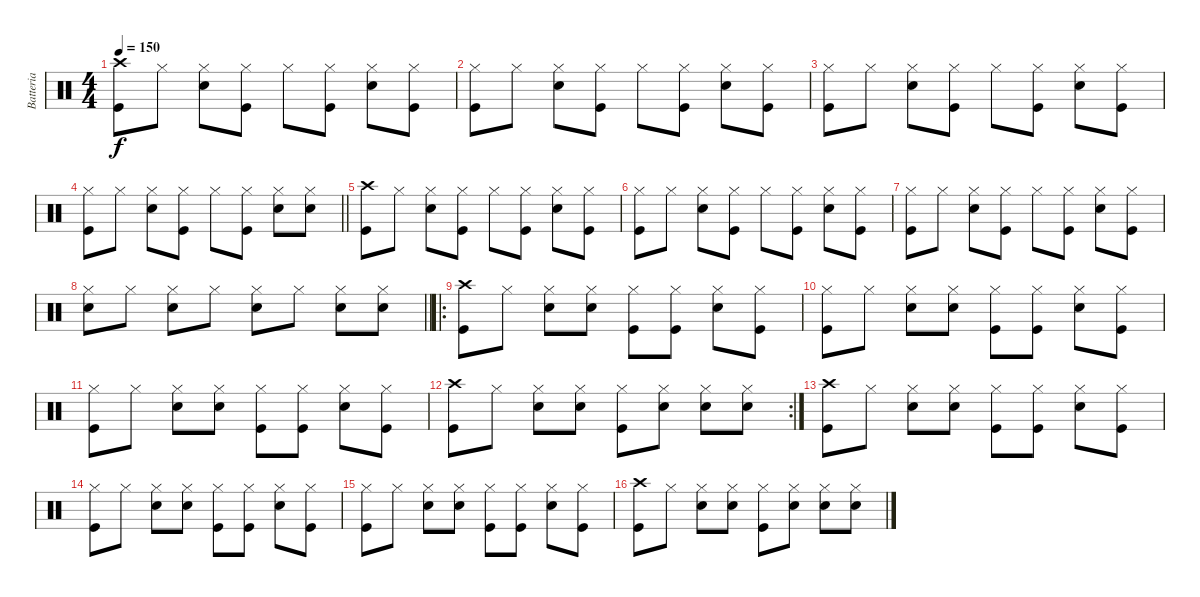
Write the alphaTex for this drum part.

\track ("Batteria" "Batteria") {instrument percussion}
\staff {score}
\articulation defaults
\ts (4 4)
\tempo 150
\clef neutral
\ks c
("Kick (hit)" "Crash high (hit)").8{dy f} "Hi-Hat (closed)".8 ("Snare (hit) 2" "Hi-Hat (closed)").8 ("Kick (hit)" "Hi-Hat (closed)").8 "Hi-Hat (closed)".8 ("Kick (hit)" "Hi-Hat (closed)").8 ("Snare (hit) 2" "Hi-Hat (closed)").8 ("Kick (hit)" "Hi-Hat (closed)").8 |
("Kick (hit)" "Hi-Hat (closed)").8 "Hi-Hat (closed)".8 ("Snare (hit) 2" "Hi-Hat (closed)").8 ("Kick (hit)" "Hi-Hat (closed)").8 "Hi-Hat (closed)".8 ("Kick (hit)" "Hi-Hat (closed)").8 ("Snare (hit) 2" "Hi-Hat (closed)").8 ("Kick (hit)" "Hi-Hat (closed)").8 |
("Kick (hit)" "Hi-Hat (closed)").8 "Hi-Hat (closed)".8 ("Snare (hit) 2" "Hi-Hat (closed)").8 ("Kick (hit)" "Hi-Hat (closed)").8 "Hi-Hat (closed)".8 ("Kick (hit)" "Hi-Hat (closed)").8 ("Snare (hit) 2" "Hi-Hat (closed)").8 ("Kick (hit)" "Hi-Hat (closed)").8 |
\barLineRight lightlight
("Kick (hit)" "Hi-Hat (closed)").8 "Hi-Hat (closed)".8 ("Snare (hit) 2" "Hi-Hat (closed)").8 ("Kick (hit)" "Hi-Hat (closed)").8 "Hi-Hat (closed)".8 ("Kick (hit)" "Hi-Hat (closed)").8 ("Snare (hit) 2" "Hi-Hat (closed)").8 ("Hi-Hat (closed)" "Snare (hit) 2").8 |
("Kick (hit)" "Crash high (hit)").8 "Hi-Hat (closed)".8 ("Snare (hit) 2" "Hi-Hat (closed)").8 ("Kick (hit)" "Hi-Hat (closed)").8 "Hi-Hat (closed)".8 ("Kick (hit)" "Hi-Hat (closed)").8 ("Snare (hit) 2" "Hi-Hat (closed)").8 ("Kick (hit)" "Hi-Hat (closed)").8 |
("Kick (hit)" "Hi-Hat (closed)").8 "Hi-Hat (closed)".8 ("Snare (hit) 2" "Hi-Hat (closed)").8 ("Kick (hit)" "Hi-Hat (closed)").8 "Hi-Hat (closed)".8 ("Kick (hit)" "Hi-Hat (closed)").8 ("Snare (hit) 2" "Hi-Hat (closed)").8 ("Kick (hit)" "Hi-Hat (closed)").8 |
("Kick (hit)" "Hi-Hat (closed)").8 "Hi-Hat (closed)".8 ("Snare (hit) 2" "Hi-Hat (closed)").8 ("Kick (hit)" "Hi-Hat (closed)").8 "Hi-Hat (closed)".8 ("Kick (hit)" "Hi-Hat (closed)").8 ("Snare (hit) 2" "Hi-Hat (closed)").8 ("Kick (hit)" "Hi-Hat (closed)").8 |
\barLineRight lightlight
("Hi-Hat (closed)" "Snare (hit) 2").8 "Hi-Hat (closed)".8 ("Hi-Hat (closed)" "Snare (hit) 2").8 "Hi-Hat (closed)".8 ("Hi-Hat (closed)" "Snare (hit) 2").8 "Hi-Hat (closed)".8 ("Hi-Hat (closed)" "Snare (hit) 2").8 ("Hi-Hat (closed)" "Snare (hit) 2").8 |
\ro
("Kick (hit)" "Crash high (hit)").8 "Hi-Hat (closed)".8 ("Snare (hit) 2" "Hi-Hat (closed)").8 ("Snare (hit) 2" "Hi-Hat (closed)").8 ("Hi-Hat (closed)" "Kick (hit)").8 ("Kick (hit)" "Hi-Hat (closed)").8 ("Snare (hit) 2" "Hi-Hat (closed)").8 ("Kick (hit)" "Hi-Hat (closed)").8 |
("Kick (hit)" "Hi-Hat (closed)").8 "Hi-Hat (closed)".8 ("Snare (hit) 2" "Hi-Hat (closed)").8 ("Snare (hit) 2" "Hi-Hat (closed)").8 ("Hi-Hat (closed)" "Kick (hit)").8 ("Kick (hit)" "Hi-Hat (closed)").8 ("Snare (hit) 2" "Hi-Hat (closed)").8 ("Kick (hit)" "Hi-Hat (closed)").8 |
("Kick (hit)" "Hi-Hat (closed)").8 "Hi-Hat (closed)".8 ("Snare (hit) 2" "Hi-Hat (closed)").8 ("Snare (hit) 2" "Hi-Hat (closed)").8 ("Hi-Hat (closed)" "Kick (hit)").8 ("Kick (hit)" "Hi-Hat (closed)").8 ("Snare (hit) 2" "Hi-Hat (closed)").8 ("Kick (hit)" "Hi-Hat (closed)").8 |
\rc 2
("Kick (hit)" "Crash high (hit)").8 "Hi-Hat (closed)".8 ("Snare (hit) 2" "Hi-Hat (closed)").8 ("Snare (hit) 2" "Hi-Hat (closed)").8 ("Hi-Hat (closed)" "Kick (hit)").8 ("Hi-Hat (closed)" "Snare (hit) 2").8 ("Snare (hit) 2" "Hi-Hat (closed)").8 ("Snare (hit) 2" "Hi-Hat (closed)").8 |
("Kick (hit)" "Crash high (hit)").8 "Hi-Hat (closed)".8 ("Snare (hit) 2" "Hi-Hat (closed)").8 ("Snare (hit) 2" "Hi-Hat (closed)").8 ("Hi-Hat (closed)" "Kick (hit)").8 ("Kick (hit)" "Hi-Hat (closed)").8 ("Snare (hit) 2" "Hi-Hat (closed)").8 ("Kick (hit)" "Hi-Hat (closed)").8 |
("Kick (hit)" "Hi-Hat (closed)").8 "Hi-Hat (closed)".8 ("Snare (hit) 2" "Hi-Hat (closed)").8 ("Snare (hit) 2" "Hi-Hat (closed)").8 ("Hi-Hat (closed)" "Kick (hit)").8 ("Kick (hit)" "Hi-Hat (closed)").8 ("Snare (hit) 2" "Hi-Hat (closed)").8 ("Kick (hit)" "Hi-Hat (closed)").8 |
("Kick (hit)" "Hi-Hat (closed)").8 "Hi-Hat (closed)".8 ("Snare (hit) 2" "Hi-Hat (closed)").8 ("Snare (hit) 2" "Hi-Hat (closed)").8 ("Hi-Hat (closed)" "Kick (hit)").8 ("Kick (hit)" "Hi-Hat (closed)").8 ("Snare (hit) 2" "Hi-Hat (closed)").8 ("Kick (hit)" "Hi-Hat (closed)").8 |
("Kick (hit)" "Crash high (hit)").8 "Hi-Hat (closed)".8 ("Snare (hit) 2" "Hi-Hat (closed)").8 ("Snare (hit) 2" "Hi-Hat (closed)").8 ("Hi-Hat (closed)" "Kick (hit)").8 ("Hi-Hat (closed)" "Snare (hit) 2").8 ("Snare (hit) 2" "Hi-Hat (closed)").8 ("Snare (hit) 2" "Hi-Hat (closed)").8
